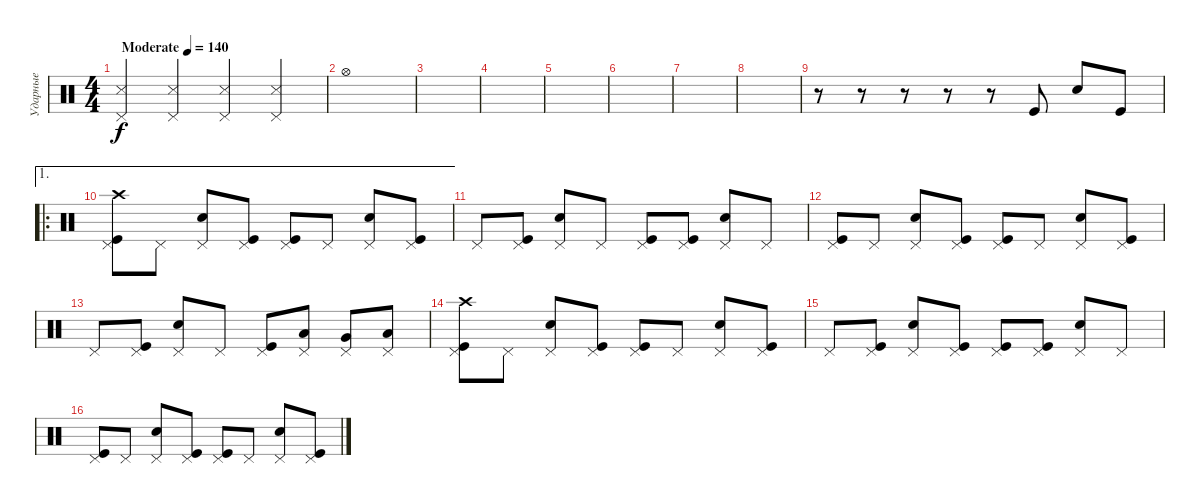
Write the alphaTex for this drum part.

\track ("Ударные" "Ударные") {instrument percussion}
\staff {score}
\articulation defaults
\ts (4 4)
\tempo (140 "Moderate")
\clef neutral
\ks c
("Snare (side stick) 3" "Pedal Hi-Hat (hit)").4{dy f} ("Snare (side stick) 3" "Pedal Hi-Hat (hit)").4 ("Snare (side stick) 3" "Pedal Hi-Hat (hit)").4 ("Snare (side stick) 3" "Pedal Hi-Hat (hit)").4 |
"Hi-Hat (open)".1 |
|
|
|
|
|
|
r.8 r.8 r.8 r.8 r.8 "Kick (hit)".8 "Snare (hit) 2".8 "Kick (hit)".8 |
\ae 1
\ro
("Pedal Hi-Hat (hit)" "Kick (hit)" "Crash high (hit)").8 "Pedal Hi-Hat (hit)".8 ("Pedal Hi-Hat (hit)" "Snare (hit) 2").8 ("Pedal Hi-Hat (hit)" "Kick (hit)").8 ("Pedal Hi-Hat (hit)" "Kick (hit)").8 "Pedal Hi-Hat (hit)".8 ("Pedal Hi-Hat (hit)" "Snare (hit) 2").8 ("Pedal Hi-Hat (hit)" "Kick (hit)").8 |
"Pedal Hi-Hat (hit)".8 ("Pedal Hi-Hat (hit)" "Kick (hit)").8 ("Pedal Hi-Hat (hit)" "Snare (hit) 2").8 "Pedal Hi-Hat (hit)".8 ("Pedal Hi-Hat (hit)" "Kick (hit)").8 ("Pedal Hi-Hat (hit)" "Kick (hit)").8 ("Pedal Hi-Hat (hit)" "Snare (hit) 2").8 "Pedal Hi-Hat (hit)".8 |
("Pedal Hi-Hat (hit)" "Kick (hit)").8 "Pedal Hi-Hat (hit)".8 ("Pedal Hi-Hat (hit)" "Snare (hit) 2").8 ("Pedal Hi-Hat (hit)" "Kick (hit)").8 ("Pedal Hi-Hat (hit)" "Kick (hit)").8 "Pedal Hi-Hat (hit)".8 ("Pedal Hi-Hat (hit)" "Snare (hit) 2").8 ("Pedal Hi-Hat (hit)" "Kick (hit)").8 |
"Pedal Hi-Hat (hit)".8 ("Pedal Hi-Hat (hit)" "Kick (hit)").8 ("Pedal Hi-Hat (hit)" "Snare (hit) 2").8 "Pedal Hi-Hat (hit)".8 ("Pedal Hi-Hat (hit)" "Kick (hit)").8 ("Pedal Hi-Hat (hit)" "Low Tom (hit)").8 ("Pedal Hi-Hat (hit)" "Very Low Tom (hit)").8 ("Pedal Hi-Hat (hit)" "Low Floor Tom (hit)").8 |
("Pedal Hi-Hat (hit)" "Kick (hit)" "Crash high (hit)").8 "Pedal Hi-Hat (hit)".8 ("Pedal Hi-Hat (hit)" "Snare (hit) 2").8 ("Pedal Hi-Hat (hit)" "Kick (hit)").8 ("Pedal Hi-Hat (hit)" "Kick (hit)").8 "Pedal Hi-Hat (hit)".8 ("Pedal Hi-Hat (hit)" "Snare (hit) 2").8 ("Pedal Hi-Hat (hit)" "Kick (hit)").8 |
"Pedal Hi-Hat (hit)".8 ("Pedal Hi-Hat (hit)" "Kick (hit)").8 ("Pedal Hi-Hat (hit)" "Snare (hit) 2").8 ("Pedal Hi-Hat (hit)" "Kick (hit)").8 ("Pedal Hi-Hat (hit)" "Kick (hit)").8 ("Pedal Hi-Hat (hit)" "Kick (hit)").8 ("Pedal Hi-Hat (hit)" "Snare (hit) 2").8 "Pedal Hi-Hat (hit)".8 |
("Pedal Hi-Hat (hit)" "Kick (hit)").8 "Pedal Hi-Hat (hit)".8 ("Pedal Hi-Hat (hit)" "Snare (hit) 2").8 ("Pedal Hi-Hat (hit)" "Kick (hit)").8 ("Pedal Hi-Hat (hit)" "Kick (hit)").8 "Pedal Hi-Hat (hit)".8 ("Pedal Hi-Hat (hit)" "Snare (hit) 2").8 ("Pedal Hi-Hat (hit)" "Kick (hit)").8
